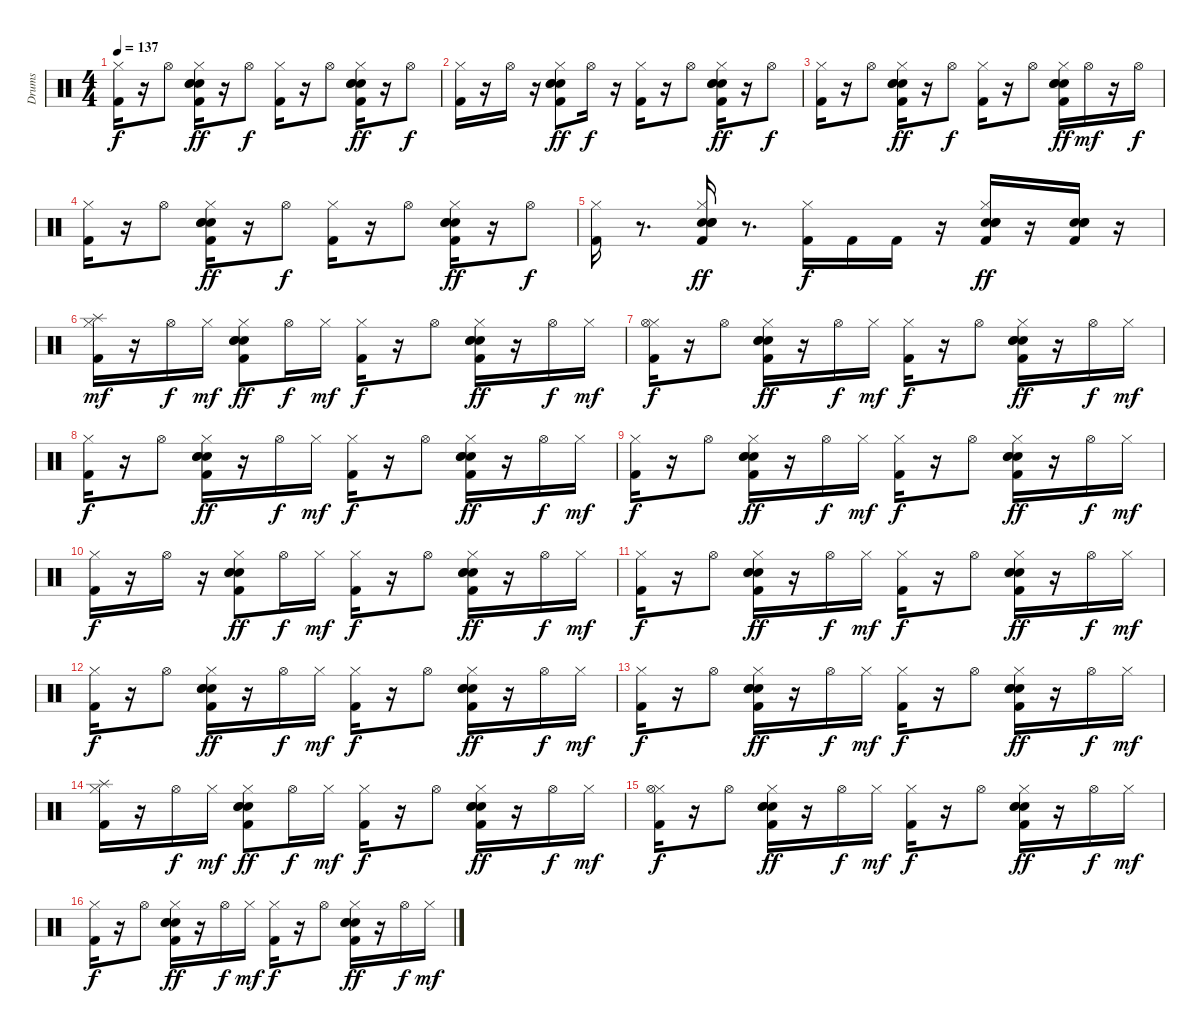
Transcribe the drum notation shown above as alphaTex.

\track ("Drums" "Drums") {instrument percussion}
\staff {score}
\articulation defaults
\ts (4 4)
\tempo 137
\clef neutral
\ks c
("Kick (hit) 2" "Hi-Hat (closed)").16{dy f} r.16 "Hi-Hat (open)".8 ("Electric Snare (hit)" "Kick (hit) 2" "Hand Clap (hit)" "Hi-Hat (closed)" "Electric Snare (hit)").16{dy ff} r.16 "Hi-Hat (open)".8{dy f} ("Kick (hit) 2" "Hi-Hat (closed)").16 r.16 "Hi-Hat (open)".8 ("Electric Snare (hit)" "Kick (hit) 2" "Hand Clap (hit)" "Hi-Hat (closed)" "Electric Snare (hit)").16{dy ff} r.16 "Hi-Hat (open)".8{dy f} |
("Kick (hit) 2" "Hi-Hat (closed)").16 r.16 "Hi-Hat (open)".16 r.16 ("Electric Snare (hit)" "Kick (hit) 2" "Hand Clap (hit)" "Hi-Hat (closed)" "Electric Snare (hit)").8{dy ff} "Hi-Hat (open)".16{dy f} r.16 ("Kick (hit) 2" "Hi-Hat (closed)").16 r.16 "Hi-Hat (open)".8 ("Electric Snare (hit)" "Kick (hit) 2" "Hand Clap (hit)" "Hi-Hat (closed)" "Electric Snare (hit)").16{dy ff} r.16 "Hi-Hat (open)".8{dy f} |
("Kick (hit) 2" "Hi-Hat (closed)").16 r.16 "Hi-Hat (open)".8 ("Electric Snare (hit)" "Kick (hit) 2" "Hand Clap (hit)" "Hi-Hat (closed)" "Electric Snare (hit)").16{dy ff} r.16 "Hi-Hat (open)".8{dy f} ("Kick (hit) 2" "Hi-Hat (closed)").16 r.16 "Hi-Hat (open)".8 ("Electric Snare (hit)" "Kick (hit) 2" "Hand Clap (hit)" "Hi-Hat (closed)" "Electric Snare (hit)").16{dy ff} "Hi-Hat (open)".16{dy mf} r.16 "Hi-Hat (open)".16{dy f} |
("Kick (hit) 2" "Hi-Hat (closed)").16 r.16 "Hi-Hat (open)".8 ("Electric Snare (hit)" "Kick (hit) 2" "Hand Clap (hit)" "Hi-Hat (closed)" "Electric Snare (hit)").16{dy ff} r.16 "Hi-Hat (open)".8{dy f} ("Kick (hit) 2" "Hi-Hat (closed)").16 r.16 "Hi-Hat (open)".8 ("Electric Snare (hit)" "Kick (hit) 2" "Hand Clap (hit)" "Hi-Hat (closed)" "Electric Snare (hit)").16{dy ff} r.16 "Hi-Hat (open)".8{dy f} |
("Kick (hit) 2" "Hi-Hat (closed)").16 r.8{d} ("Electric Snare (hit)" "Kick (hit) 2" "Hand Clap (hit)" "Hi-Hat (closed)" "Electric Snare (hit)").16{dy ff} r.8{d} ("Kick (hit) 2" "Hi-Hat (closed)").16{dy f} "Kick (hit) 2".16 "Kick (hit) 2".16 r.16 ("Electric Snare (hit)" "Kick (hit) 2" "Hand Clap (hit)" "Hi-Hat (closed)" "Electric Snare (hit)").16{dy ff} r.16 ("Electric Snare (hit)" "Kick (hit) 2" "Hand Clap (hit)" "Electric Snare (hit)").16 r.16 |
("Kick (hit) 2" "Hi-Hat (closed)" "Splash (hit)").16{dy mf} r.16 "Hi-Hat (open)".16{dy f} "Hi-Hat (closed)".16{dy mf} ("Electric Snare (hit)" "Kick (hit) 2" "Hand Clap (hit)" "Hi-Hat (closed)" "Electric Snare (hit)").8{dy ff} "Hi-Hat (open)".16{dy f} "Hi-Hat (closed)".16{dy mf} ("Kick (hit) 2" "Hi-Hat (closed)").16{dy f} r.16 "Hi-Hat (open)".8 ("Electric Snare (hit)" "Kick (hit) 2" "Hand Clap (hit)" "Hi-Hat (closed)" "Electric Snare (hit)").16{dy ff} r.16 "Hi-Hat (open)".16{dy f} "Hi-Hat (closed)".16{dy mf} |
("Kick (hit) 2" "Hi-Hat (closed)" "Hi-Hat (open)").16{dy f} r.16 "Hi-Hat (open)".8 ("Electric Snare (hit)" "Kick (hit) 2" "Hand Clap (hit)" "Hi-Hat (closed)" "Electric Snare (hit)").16{dy ff} r.16 "Hi-Hat (open)".16{dy f} "Hi-Hat (closed)".16{dy mf} ("Kick (hit) 2" "Hi-Hat (closed)").16{dy f} r.16 "Hi-Hat (open)".8 ("Electric Snare (hit)" "Kick (hit) 2" "Hand Clap (hit)" "Hi-Hat (closed)" "Electric Snare (hit)").16{dy ff} r.16 "Hi-Hat (open)".16{dy f} "Hi-Hat (closed)".16{dy mf} |
("Kick (hit) 2" "Hi-Hat (closed)").16{dy f} r.16 "Hi-Hat (open)".8 ("Electric Snare (hit)" "Kick (hit) 2" "Hand Clap (hit)" "Hi-Hat (closed)" "Electric Snare (hit)").16{dy ff} r.16 "Hi-Hat (open)".16{dy f} "Hi-Hat (closed)".16{dy mf} ("Kick (hit) 2" "Hi-Hat (closed)").16{dy f} r.16 "Hi-Hat (open)".8 ("Electric Snare (hit)" "Kick (hit) 2" "Hand Clap (hit)" "Hi-Hat (closed)" "Electric Snare (hit)").16{dy ff} r.16 "Hi-Hat (open)".16{dy f} "Hi-Hat (closed)".16{dy mf} |
("Kick (hit) 2" "Hi-Hat (closed)").16{dy f} r.16 "Hi-Hat (open)".8 ("Electric Snare (hit)" "Kick (hit) 2" "Hand Clap (hit)" "Hi-Hat (closed)" "Electric Snare (hit)").16{dy ff} r.16 "Hi-Hat (open)".16{dy f} "Hi-Hat (closed)".16{dy mf} ("Kick (hit) 2" "Hi-Hat (closed)").16{dy f} r.16 "Hi-Hat (open)".8 ("Electric Snare (hit)" "Kick (hit) 2" "Hand Clap (hit)" "Hi-Hat (closed)" "Electric Snare (hit)").16{dy ff} r.16 "Hi-Hat (open)".16{dy f} "Hi-Hat (closed)".16{dy mf} |
("Kick (hit) 2" "Hi-Hat (closed)").16{dy f} r.16 "Hi-Hat (open)".16 r.16 ("Electric Snare (hit)" "Kick (hit) 2" "Hand Clap (hit)" "Hi-Hat (closed)" "Electric Snare (hit)").8{dy ff} "Hi-Hat (open)".16{dy f} "Hi-Hat (closed)".16{dy mf} ("Kick (hit) 2" "Hi-Hat (closed)").16{dy f} r.16 "Hi-Hat (open)".8 ("Electric Snare (hit)" "Kick (hit) 2" "Hand Clap (hit)" "Hi-Hat (closed)" "Electric Snare (hit)").16{dy ff} r.16 "Hi-Hat (open)".16{dy f} "Hi-Hat (closed)".16{dy mf} |
("Kick (hit) 2" "Hi-Hat (closed)").16{dy f} r.16 "Hi-Hat (open)".8 ("Electric Snare (hit)" "Kick (hit) 2" "Hand Clap (hit)" "Hi-Hat (closed)" "Electric Snare (hit)").16{dy ff} r.16 "Hi-Hat (open)".16{dy f} "Hi-Hat (closed)".16{dy mf} ("Kick (hit) 2" "Hi-Hat (closed)").16{dy f} r.16 "Hi-Hat (open)".8 ("Electric Snare (hit)" "Kick (hit) 2" "Hand Clap (hit)" "Hi-Hat (closed)" "Electric Snare (hit)").16{dy ff} r.16 "Hi-Hat (open)".16{dy f} "Hi-Hat (closed)".16{dy mf} |
("Kick (hit) 2" "Hi-Hat (closed)").16{dy f} r.16 "Hi-Hat (open)".8 ("Electric Snare (hit)" "Kick (hit) 2" "Hand Clap (hit)" "Hi-Hat (closed)" "Electric Snare (hit)").16{dy ff} r.16 "Hi-Hat (open)".16{dy f} "Hi-Hat (closed)".16{dy mf} ("Kick (hit) 2" "Hi-Hat (closed)").16{dy f} r.16 "Hi-Hat (open)".8 ("Electric Snare (hit)" "Kick (hit) 2" "Hand Clap (hit)" "Hi-Hat (closed)" "Electric Snare (hit)").16{dy ff} r.16 "Hi-Hat (open)".16{dy f} "Hi-Hat (closed)".16{dy mf} |
("Kick (hit) 2" "Hi-Hat (closed)").16{dy f} r.16 "Hi-Hat (open)".8 ("Electric Snare (hit)" "Kick (hit) 2" "Hand Clap (hit)" "Hi-Hat (closed)" "Electric Snare (hit)").16{dy ff} r.16 "Hi-Hat (open)".16{dy f} "Hi-Hat (closed)".16{dy mf} ("Kick (hit) 2" "Hi-Hat (closed)").16{dy f} r.16 "Hi-Hat (open)".8 ("Electric Snare (hit)" "Kick (hit) 2" "Hand Clap (hit)" "Hi-Hat (closed)" "Electric Snare (hit)").16{dy ff} r.16 "Hi-Hat (open)".16{dy f} "Hi-Hat (closed)".16{dy mf} |
("Kick (hit) 2" "Hi-Hat (closed)" "Splash (hit)").16 r.16 "Hi-Hat (open)".16{dy f} "Hi-Hat (closed)".16{dy mf} ("Electric Snare (hit)" "Kick (hit) 2" "Hand Clap (hit)" "Hi-Hat (closed)" "Electric Snare (hit)").8{dy ff} "Hi-Hat (open)".16{dy f} "Hi-Hat (closed)".16{dy mf} ("Kick (hit) 2" "Hi-Hat (closed)").16{dy f} r.16 "Hi-Hat (open)".8 ("Electric Snare (hit)" "Kick (hit) 2" "Hand Clap (hit)" "Hi-Hat (closed)" "Electric Snare (hit)").16{dy ff} r.16 "Hi-Hat (open)".16{dy f} "Hi-Hat (closed)".16{dy mf} |
("Kick (hit) 2" "Hi-Hat (closed)" "Hi-Hat (open)").16{dy f} r.16 "Hi-Hat (open)".8 ("Electric Snare (hit)" "Kick (hit) 2" "Hand Clap (hit)" "Hi-Hat (closed)" "Electric Snare (hit)").16{dy ff} r.16 "Hi-Hat (open)".16{dy f} "Hi-Hat (closed)".16{dy mf} ("Kick (hit) 2" "Hi-Hat (closed)").16{dy f} r.16 "Hi-Hat (open)".8 ("Electric Snare (hit)" "Kick (hit) 2" "Hand Clap (hit)" "Hi-Hat (closed)" "Electric Snare (hit)").16{dy ff} r.16 "Hi-Hat (open)".16{dy f} "Hi-Hat (closed)".16{dy mf} |
("Kick (hit) 2" "Hi-Hat (closed)").16{dy f} r.16 "Hi-Hat (open)".8 ("Electric Snare (hit)" "Kick (hit) 2" "Hand Clap (hit)" "Hi-Hat (closed)" "Electric Snare (hit)").16{dy ff} r.16 "Hi-Hat (open)".16{dy f} "Hi-Hat (closed)".16{dy mf} ("Kick (hit) 2" "Hi-Hat (closed)").16{dy f} r.16 "Hi-Hat (open)".8 ("Electric Snare (hit)" "Kick (hit) 2" "Hand Clap (hit)" "Hi-Hat (closed)" "Electric Snare (hit)").16{dy ff} r.16 "Hi-Hat (open)".16{dy f} "Hi-Hat (closed)".16{dy mf}
